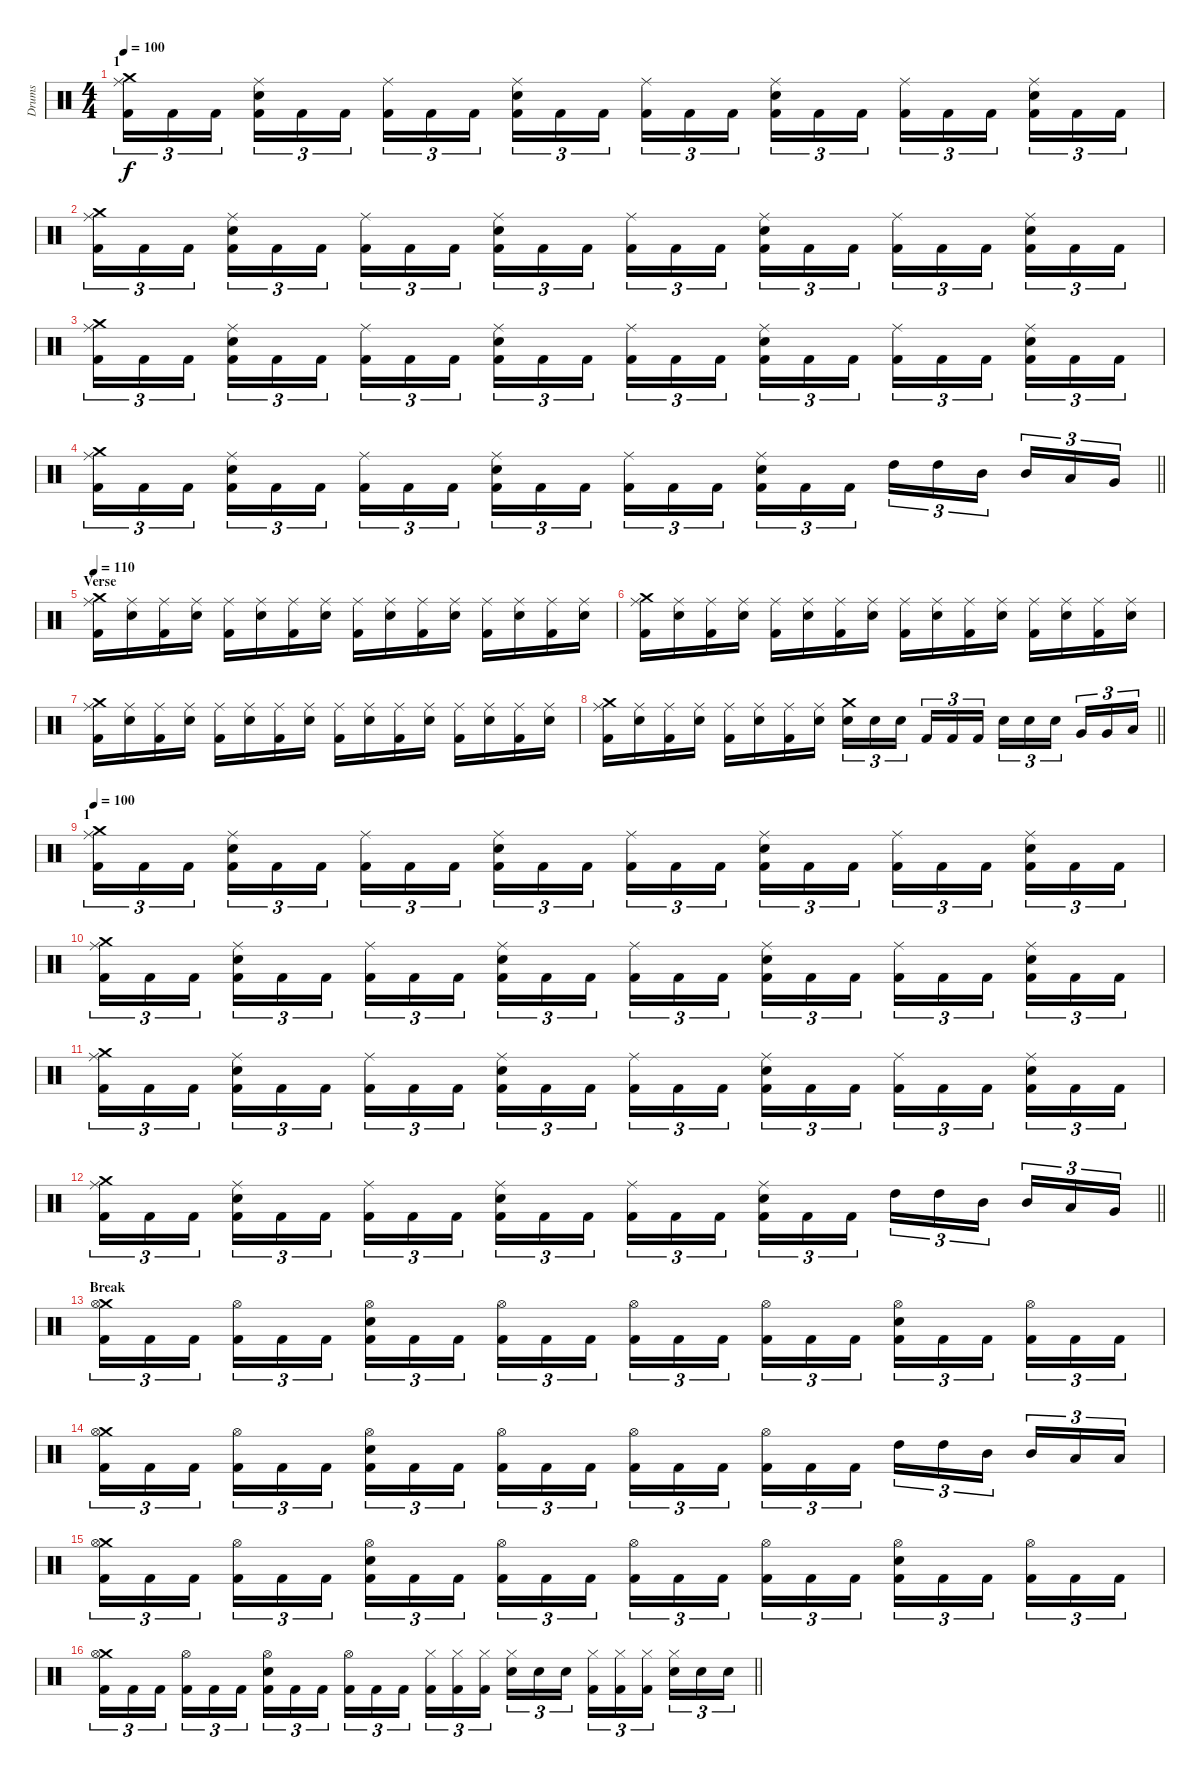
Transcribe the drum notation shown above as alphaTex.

\track ("Drums" "Drums") {instrument percussion}
\staff {score}
\articulation defaults
\ts (4 4)
\section ("" "1")
\tempo 100
\clef neutral
\ks c
("Crash medium (hit)" "Ride (middle)" "Kick (hit) 2").16{tu (3 2) dy f} "Kick (hit) 2".16{tu (3 2)} "Kick (hit) 2".16{tu (3 2) beam splitsecondary} ("Ride (middle)" "Electric Snare (hit)" "Kick (hit) 2").16{tu (3 2)} "Kick (hit) 2".16{tu (3 2)} "Kick (hit) 2".16{tu (3 2)} ("Ride (middle)" "Kick (hit) 2").16{tu (3 2)} "Kick (hit) 2".16{tu (3 2)} "Kick (hit) 2".16{tu (3 2) beam splitsecondary} ("Ride (middle)" "Electric Snare (hit)" "Kick (hit) 2").16{tu (3 2)} "Kick (hit) 2".16{tu (3 2)} "Kick (hit) 2".16{tu (3 2)} ("Ride (middle)" "Kick (hit) 2").16{tu (3 2)} "Kick (hit) 2".16{tu (3 2)} "Kick (hit) 2".16{tu (3 2) beam splitsecondary} ("Ride (middle)" "Electric Snare (hit)" "Kick (hit) 2").16{tu (3 2)} "Kick (hit) 2".16{tu (3 2)} "Kick (hit) 2".16{tu (3 2)} ("Ride (middle)" "Kick (hit) 2").16{tu (3 2)} "Kick (hit) 2".16{tu (3 2)} "Kick (hit) 2".16{tu (3 2) beam splitsecondary} ("Ride (middle)" "Electric Snare (hit)" "Kick (hit) 2").16{tu (3 2)} "Kick (hit) 2".16{tu (3 2)} "Kick (hit) 2".16{tu (3 2)} |
("Crash medium (hit)" "Ride (middle)" "Kick (hit) 2").16{tu (3 2)} "Kick (hit) 2".16{tu (3 2)} "Kick (hit) 2".16{tu (3 2) beam splitsecondary} ("Ride (middle)" "Electric Snare (hit)" "Kick (hit) 2").16{tu (3 2)} "Kick (hit) 2".16{tu (3 2)} "Kick (hit) 2".16{tu (3 2)} ("Ride (middle)" "Kick (hit) 2").16{tu (3 2)} "Kick (hit) 2".16{tu (3 2)} "Kick (hit) 2".16{tu (3 2) beam splitsecondary} ("Ride (middle)" "Electric Snare (hit)" "Kick (hit) 2").16{tu (3 2)} "Kick (hit) 2".16{tu (3 2)} "Kick (hit) 2".16{tu (3 2)} ("Ride (middle)" "Kick (hit) 2").16{tu (3 2)} "Kick (hit) 2".16{tu (3 2)} "Kick (hit) 2".16{tu (3 2) beam splitsecondary} ("Ride (middle)" "Electric Snare (hit)" "Kick (hit) 2").16{tu (3 2)} "Kick (hit) 2".16{tu (3 2)} "Kick (hit) 2".16{tu (3 2)} ("Ride (middle)" "Kick (hit) 2").16{tu (3 2)} "Kick (hit) 2".16{tu (3 2)} "Kick (hit) 2".16{tu (3 2) beam splitsecondary} ("Ride (middle)" "Electric Snare (hit)" "Kick (hit) 2").16{tu (3 2)} "Kick (hit) 2".16{tu (3 2)} "Kick (hit) 2".16{tu (3 2)} |
("Crash medium (hit)" "Ride (middle)" "Kick (hit) 2").16{tu (3 2)} "Kick (hit) 2".16{tu (3 2)} "Kick (hit) 2".16{tu (3 2) beam splitsecondary} ("Ride (middle)" "Electric Snare (hit)" "Kick (hit) 2").16{tu (3 2)} "Kick (hit) 2".16{tu (3 2)} "Kick (hit) 2".16{tu (3 2)} ("Ride (middle)" "Kick (hit) 2").16{tu (3 2)} "Kick (hit) 2".16{tu (3 2)} "Kick (hit) 2".16{tu (3 2) beam splitsecondary} ("Ride (middle)" "Electric Snare (hit)" "Kick (hit) 2").16{tu (3 2)} "Kick (hit) 2".16{tu (3 2)} "Kick (hit) 2".16{tu (3 2)} ("Ride (middle)" "Kick (hit) 2").16{tu (3 2)} "Kick (hit) 2".16{tu (3 2)} "Kick (hit) 2".16{tu (3 2) beam splitsecondary} ("Ride (middle)" "Electric Snare (hit)" "Kick (hit) 2").16{tu (3 2)} "Kick (hit) 2".16{tu (3 2)} "Kick (hit) 2".16{tu (3 2)} ("Ride (middle)" "Kick (hit) 2").16{tu (3 2)} "Kick (hit) 2".16{tu (3 2)} "Kick (hit) 2".16{tu (3 2) beam splitsecondary} ("Ride (middle)" "Electric Snare (hit)" "Kick (hit) 2").16{tu (3 2)} "Kick (hit) 2".16{tu (3 2)} "Kick (hit) 2".16{tu (3 2)} |
\barLineRight lightlight
("Crash medium (hit)" "Ride (middle)" "Kick (hit) 2").16{tu (3 2)} "Kick (hit) 2".16{tu (3 2)} "Kick (hit) 2".16{tu (3 2) beam splitsecondary} ("Ride (middle)" "Electric Snare (hit)" "Kick (hit) 2").16{tu (3 2)} "Kick (hit) 2".16{tu (3 2)} "Kick (hit) 2".16{tu (3 2)} ("Ride (middle)" "Kick (hit) 2").16{tu (3 2)} "Kick (hit) 2".16{tu (3 2)} "Kick (hit) 2".16{tu (3 2) beam splitsecondary} ("Ride (middle)" "Electric Snare (hit)" "Kick (hit) 2").16{tu (3 2)} "Kick (hit) 2".16{tu (3 2)} "Kick (hit) 2".16{tu (3 2)} ("Ride (middle)" "Kick (hit) 2").16{tu (3 2)} "Kick (hit) 2".16{tu (3 2)} "Kick (hit) 2".16{tu (3 2) beam splitsecondary} ("Ride (middle)" "Electric Snare (hit)" "Kick (hit) 2").16{tu (3 2)} "Kick (hit) 2".16{tu (3 2)} "Kick (hit) 2".16{tu (3 2)} "High Tom (hit)".16{tu (3 2)} "High Tom (hit)".16{tu (3 2)} "Mid Tom (hit)".16{tu (3 2) beam splitsecondary} "Mid Tom (hit)".16{tu (3 2)} "Low Tom (hit)".16{tu (3 2)} "Very Low Tom (hit)".16{tu (3 2)} |
\section ("" "Verse")
\tempo 110
("Crash medium (hit)" "Ride (middle)" "Kick (hit) 2").16 ("Ride (middle)" "Electric Snare (hit)").16 ("Ride (middle)" "Kick (hit) 2").16 ("Ride (middle)" "Electric Snare (hit)").16 ("Ride (middle)" "Kick (hit) 2").16 ("Ride (middle)" "Electric Snare (hit)").16 ("Ride (middle)" "Kick (hit) 2").16 ("Ride (middle)" "Electric Snare (hit)").16 ("Ride (middle)" "Kick (hit) 2").16 ("Ride (middle)" "Electric Snare (hit)").16 ("Ride (middle)" "Kick (hit) 2").16 ("Ride (middle)" "Electric Snare (hit)").16 ("Ride (middle)" "Kick (hit) 2").16 ("Ride (middle)" "Electric Snare (hit)").16 ("Ride (middle)" "Kick (hit) 2").16 ("Ride (middle)" "Electric Snare (hit)").16 |
("Crash medium (hit)" "Ride (middle)" "Kick (hit) 2").16 ("Ride (middle)" "Electric Snare (hit)").16 ("Ride (middle)" "Kick (hit) 2").16 ("Ride (middle)" "Electric Snare (hit)").16 ("Ride (middle)" "Kick (hit) 2").16 ("Ride (middle)" "Electric Snare (hit)").16 ("Ride (middle)" "Kick (hit) 2").16 ("Ride (middle)" "Electric Snare (hit)").16 ("Ride (middle)" "Kick (hit) 2").16 ("Ride (middle)" "Electric Snare (hit)").16 ("Ride (middle)" "Kick (hit) 2").16 ("Ride (middle)" "Electric Snare (hit)").16 ("Ride (middle)" "Kick (hit) 2").16 ("Ride (middle)" "Electric Snare (hit)").16 ("Ride (middle)" "Kick (hit) 2").16 ("Ride (middle)" "Electric Snare (hit)").16 |
("Crash medium (hit)" "Ride (middle)" "Kick (hit) 2").16 ("Ride (middle)" "Electric Snare (hit)").16 ("Ride (middle)" "Kick (hit) 2").16 ("Ride (middle)" "Electric Snare (hit)").16 ("Ride (middle)" "Kick (hit) 2").16 ("Ride (middle)" "Electric Snare (hit)").16 ("Ride (middle)" "Kick (hit) 2").16 ("Ride (middle)" "Electric Snare (hit)").16 ("Ride (middle)" "Kick (hit) 2").16 ("Ride (middle)" "Electric Snare (hit)").16 ("Ride (middle)" "Kick (hit) 2").16 ("Ride (middle)" "Electric Snare (hit)").16 ("Ride (middle)" "Kick (hit) 2").16 ("Ride (middle)" "Electric Snare (hit)").16 ("Ride (middle)" "Kick (hit) 2").16 ("Ride (middle)" "Electric Snare (hit)").16 |
\barLineRight lightlight
("Crash medium (hit)" "Ride (middle)" "Kick (hit) 2").16 ("Ride (middle)" "Electric Snare (hit)").16 ("Ride (middle)" "Kick (hit) 2").16 ("Ride (middle)" "Electric Snare (hit)").16 ("Ride (middle)" "Kick (hit) 2").16 ("Ride (middle)" "Electric Snare (hit)").16 ("Ride (middle)" "Kick (hit) 2").16 ("Ride (middle)" "Electric Snare (hit)").16 ("Crash medium (hit)" "Electric Snare (hit)").16{tu (3 2)} "Electric Snare (hit)".16{tu (3 2)} "Electric Snare (hit)".16{tu (3 2) beam splitsecondary} "Kick (hit) 2".16{tu (3 2)} "Kick (hit) 2".16{tu (3 2)} "Kick (hit) 2".16{tu (3 2)} "Electric Snare (hit)".16{tu (3 2)} "Electric Snare (hit)".16{tu (3 2)} "Electric Snare (hit)".16{tu (3 2) beam splitsecondary} "Very Low Tom (hit)".16{tu (3 2)} "Very Low Tom (hit)".16{tu (3 2)} "Low Floor Tom (hit)".16{tu (3 2)} |
\section ("" "1")
\tempo 100
("Crash medium (hit)" "Ride (middle)" "Kick (hit) 2").16{tu (3 2)} "Kick (hit) 2".16{tu (3 2)} "Kick (hit) 2".16{tu (3 2) beam splitsecondary} ("Ride (middle)" "Electric Snare (hit)" "Kick (hit) 2").16{tu (3 2)} "Kick (hit) 2".16{tu (3 2)} "Kick (hit) 2".16{tu (3 2)} ("Ride (middle)" "Kick (hit) 2").16{tu (3 2)} "Kick (hit) 2".16{tu (3 2)} "Kick (hit) 2".16{tu (3 2) beam splitsecondary} ("Ride (middle)" "Electric Snare (hit)" "Kick (hit) 2").16{tu (3 2)} "Kick (hit) 2".16{tu (3 2)} "Kick (hit) 2".16{tu (3 2)} ("Ride (middle)" "Kick (hit) 2").16{tu (3 2)} "Kick (hit) 2".16{tu (3 2)} "Kick (hit) 2".16{tu (3 2) beam splitsecondary} ("Ride (middle)" "Electric Snare (hit)" "Kick (hit) 2").16{tu (3 2)} "Kick (hit) 2".16{tu (3 2)} "Kick (hit) 2".16{tu (3 2)} ("Ride (middle)" "Kick (hit) 2").16{tu (3 2)} "Kick (hit) 2".16{tu (3 2)} "Kick (hit) 2".16{tu (3 2) beam splitsecondary} ("Ride (middle)" "Electric Snare (hit)" "Kick (hit) 2").16{tu (3 2)} "Kick (hit) 2".16{tu (3 2)} "Kick (hit) 2".16{tu (3 2)} |
("Crash medium (hit)" "Ride (middle)" "Kick (hit) 2").16{tu (3 2)} "Kick (hit) 2".16{tu (3 2)} "Kick (hit) 2".16{tu (3 2) beam splitsecondary} ("Ride (middle)" "Electric Snare (hit)" "Kick (hit) 2").16{tu (3 2)} "Kick (hit) 2".16{tu (3 2)} "Kick (hit) 2".16{tu (3 2)} ("Ride (middle)" "Kick (hit) 2").16{tu (3 2)} "Kick (hit) 2".16{tu (3 2)} "Kick (hit) 2".16{tu (3 2) beam splitsecondary} ("Ride (middle)" "Electric Snare (hit)" "Kick (hit) 2").16{tu (3 2)} "Kick (hit) 2".16{tu (3 2)} "Kick (hit) 2".16{tu (3 2)} ("Ride (middle)" "Kick (hit) 2").16{tu (3 2)} "Kick (hit) 2".16{tu (3 2)} "Kick (hit) 2".16{tu (3 2) beam splitsecondary} ("Ride (middle)" "Electric Snare (hit)" "Kick (hit) 2").16{tu (3 2)} "Kick (hit) 2".16{tu (3 2)} "Kick (hit) 2".16{tu (3 2)} ("Ride (middle)" "Kick (hit) 2").16{tu (3 2)} "Kick (hit) 2".16{tu (3 2)} "Kick (hit) 2".16{tu (3 2) beam splitsecondary} ("Ride (middle)" "Electric Snare (hit)" "Kick (hit) 2").16{tu (3 2)} "Kick (hit) 2".16{tu (3 2)} "Kick (hit) 2".16{tu (3 2)} |
("Crash medium (hit)" "Ride (middle)" "Kick (hit) 2").16{tu (3 2)} "Kick (hit) 2".16{tu (3 2)} "Kick (hit) 2".16{tu (3 2) beam splitsecondary} ("Ride (middle)" "Electric Snare (hit)" "Kick (hit) 2").16{tu (3 2)} "Kick (hit) 2".16{tu (3 2)} "Kick (hit) 2".16{tu (3 2)} ("Ride (middle)" "Kick (hit) 2").16{tu (3 2)} "Kick (hit) 2".16{tu (3 2)} "Kick (hit) 2".16{tu (3 2) beam splitsecondary} ("Ride (middle)" "Electric Snare (hit)" "Kick (hit) 2").16{tu (3 2)} "Kick (hit) 2".16{tu (3 2)} "Kick (hit) 2".16{tu (3 2)} ("Ride (middle)" "Kick (hit) 2").16{tu (3 2)} "Kick (hit) 2".16{tu (3 2)} "Kick (hit) 2".16{tu (3 2) beam splitsecondary} ("Ride (middle)" "Electric Snare (hit)" "Kick (hit) 2").16{tu (3 2)} "Kick (hit) 2".16{tu (3 2)} "Kick (hit) 2".16{tu (3 2)} ("Ride (middle)" "Kick (hit) 2").16{tu (3 2)} "Kick (hit) 2".16{tu (3 2)} "Kick (hit) 2".16{tu (3 2) beam splitsecondary} ("Ride (middle)" "Electric Snare (hit)" "Kick (hit) 2").16{tu (3 2)} "Kick (hit) 2".16{tu (3 2)} "Kick (hit) 2".16{tu (3 2)} |
\barLineRight lightlight
("Crash medium (hit)" "Ride (middle)" "Kick (hit) 2").16{tu (3 2)} "Kick (hit) 2".16{tu (3 2)} "Kick (hit) 2".16{tu (3 2) beam splitsecondary} ("Ride (middle)" "Electric Snare (hit)" "Kick (hit) 2").16{tu (3 2)} "Kick (hit) 2".16{tu (3 2)} "Kick (hit) 2".16{tu (3 2)} ("Ride (middle)" "Kick (hit) 2").16{tu (3 2)} "Kick (hit) 2".16{tu (3 2)} "Kick (hit) 2".16{tu (3 2) beam splitsecondary} ("Ride (middle)" "Electric Snare (hit)" "Kick (hit) 2").16{tu (3 2)} "Kick (hit) 2".16{tu (3 2)} "Kick (hit) 2".16{tu (3 2)} ("Ride (middle)" "Kick (hit) 2").16{tu (3 2)} "Kick (hit) 2".16{tu (3 2)} "Kick (hit) 2".16{tu (3 2) beam splitsecondary} ("Ride (middle)" "Electric Snare (hit)" "Kick (hit) 2").16{tu (3 2)} "Kick (hit) 2".16{tu (3 2)} "Kick (hit) 2".16{tu (3 2)} "High Tom (hit)".16{tu (3 2)} "High Tom (hit)".16{tu (3 2)} "Mid Tom (hit)".16{tu (3 2) beam splitsecondary} "Mid Tom (hit)".16{tu (3 2)} "Low Tom (hit)".16{tu (3 2)} "Very Low Tom (hit)".16{tu (3 2)} |
\section ("" "Break")
("Crash medium (hit)" "Hi-Hat (open)" "Kick (hit) 2").16{tu (3 2)} "Kick (hit) 2".16{tu (3 2)} "Kick (hit) 2".16{tu (3 2) beam splitsecondary} ("Hi-Hat (open)" "Kick (hit) 2").16{tu (3 2)} "Kick (hit) 2".16{tu (3 2)} "Kick (hit) 2".16{tu (3 2)} ("Hi-Hat (open)" "Electric Snare (hit)" "Kick (hit) 2").16{tu (3 2)} "Kick (hit) 2".16{tu (3 2)} "Kick (hit) 2".16{tu (3 2) beam splitsecondary} ("Hi-Hat (open)" "Kick (hit) 2").16{tu (3 2)} "Kick (hit) 2".16{tu (3 2)} "Kick (hit) 2".16{tu (3 2)} ("Hi-Hat (open)" "Kick (hit) 2").16{tu (3 2)} "Kick (hit) 2".16{tu (3 2)} "Kick (hit) 2".16{tu (3 2) beam splitsecondary} ("Hi-Hat (open)" "Kick (hit) 2").16{tu (3 2)} "Kick (hit) 2".16{tu (3 2)} "Kick (hit) 2".16{tu (3 2)} ("Hi-Hat (open)" "Electric Snare (hit)" "Kick (hit) 2").16{tu (3 2)} "Kick (hit) 2".16{tu (3 2)} "Kick (hit) 2".16{tu (3 2) beam splitsecondary} ("Hi-Hat (open)" "Kick (hit) 2").16{tu (3 2)} "Kick (hit) 2".16{tu (3 2)} "Kick (hit) 2".16{tu (3 2)} |
("Crash medium (hit)" "Hi-Hat (open)" "Kick (hit) 2").16{tu (3 2)} "Kick (hit) 2".16{tu (3 2)} "Kick (hit) 2".16{tu (3 2) beam splitsecondary} ("Hi-Hat (open)" "Kick (hit) 2").16{tu (3 2)} "Kick (hit) 2".16{tu (3 2)} "Kick (hit) 2".16{tu (3 2)} ("Hi-Hat (open)" "Electric Snare (hit)" "Kick (hit) 2").16{tu (3 2)} "Kick (hit) 2".16{tu (3 2)} "Kick (hit) 2".16{tu (3 2) beam splitsecondary} ("Hi-Hat (open)" "Kick (hit) 2").16{tu (3 2)} "Kick (hit) 2".16{tu (3 2)} "Kick (hit) 2".16{tu (3 2)} ("Hi-Hat (open)" "Kick (hit) 2").16{tu (3 2)} "Kick (hit) 2".16{tu (3 2)} "Kick (hit) 2".16{tu (3 2) beam splitsecondary} ("Hi-Hat (open)" "Kick (hit) 2").16{tu (3 2)} "Kick (hit) 2".16{tu (3 2)} "Kick (hit) 2".16{tu (3 2)} "High Tom (hit)".16{tu (3 2)} "High Tom (hit)".16{tu (3 2)} "Mid Tom (hit)".16{tu (3 2) beam splitsecondary} "Mid Tom (hit)".16{tu (3 2)} "Low Tom (hit)".16{tu (3 2)} "Low Tom (hit)".16{tu (3 2)} |
("Crash medium (hit)" "Hi-Hat (open)" "Kick (hit) 2").16{tu (3 2)} "Kick (hit) 2".16{tu (3 2)} "Kick (hit) 2".16{tu (3 2) beam splitsecondary} ("Hi-Hat (open)" "Kick (hit) 2").16{tu (3 2)} "Kick (hit) 2".16{tu (3 2)} "Kick (hit) 2".16{tu (3 2)} ("Hi-Hat (open)" "Electric Snare (hit)" "Kick (hit) 2").16{tu (3 2)} "Kick (hit) 2".16{tu (3 2)} "Kick (hit) 2".16{tu (3 2) beam splitsecondary} ("Hi-Hat (open)" "Kick (hit) 2").16{tu (3 2)} "Kick (hit) 2".16{tu (3 2)} "Kick (hit) 2".16{tu (3 2)} ("Hi-Hat (open)" "Kick (hit) 2").16{tu (3 2)} "Kick (hit) 2".16{tu (3 2)} "Kick (hit) 2".16{tu (3 2) beam splitsecondary} ("Hi-Hat (open)" "Kick (hit) 2").16{tu (3 2)} "Kick (hit) 2".16{tu (3 2)} "Kick (hit) 2".16{tu (3 2)} ("Hi-Hat (open)" "Electric Snare (hit)" "Kick (hit) 2").16{tu (3 2)} "Kick (hit) 2".16{tu (3 2)} "Kick (hit) 2".16{tu (3 2) beam splitsecondary} ("Hi-Hat (open)" "Kick (hit) 2").16{tu (3 2)} "Kick (hit) 2".16{tu (3 2)} "Kick (hit) 2".16{tu (3 2)} |
\barLineRight lightlight
("Crash medium (hit)" "Hi-Hat (open)" "Kick (hit) 2").16{tu (3 2)} "Kick (hit) 2".16{tu (3 2)} "Kick (hit) 2".16{tu (3 2) beam splitsecondary} ("Hi-Hat (open)" "Kick (hit) 2").16{tu (3 2)} "Kick (hit) 2".16{tu (3 2)} "Kick (hit) 2".16{tu (3 2)} ("Hi-Hat (open)" "Electric Snare (hit)" "Kick (hit) 2").16{tu (3 2)} "Kick (hit) 2".16{tu (3 2)} "Kick (hit) 2".16{tu (3 2) beam splitsecondary} ("Hi-Hat (open)" "Kick (hit) 2").16{tu (3 2)} "Kick (hit) 2".16{tu (3 2)} "Kick (hit) 2".16{tu (3 2)} ("Hi-Hat (closed)" "Kick (hit) 2").16{tu (3 2)} ("Hi-Hat (closed)" "Kick (hit) 2").16{tu (3 2)} ("Hi-Hat (closed)" "Kick (hit) 2").16{tu (3 2) beam splitsecondary} ("Hi-Hat (closed)" "Electric Snare (hit)").16{tu (3 2)} "Electric Snare (hit)".16{tu (3 2)} "Electric Snare (hit)".16{tu (3 2)} ("Hi-Hat (closed)" "Kick (hit) 2").16{tu (3 2)} ("Hi-Hat (closed)" "Kick (hit) 2").16{tu (3 2)} ("Hi-Hat (closed)" "Kick (hit) 2").16{tu (3 2) beam splitsecondary} ("Hi-Hat (closed)" "Electric Snare (hit)").16{tu (3 2)} "Electric Snare (hit)".16{tu (3 2)} "Electric Snare (hit)".16{tu (3 2)}
